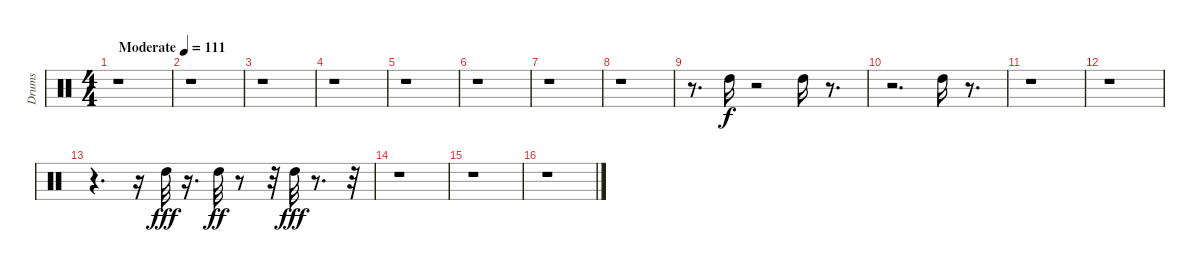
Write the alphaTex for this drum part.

\track ("Drums" "Drums") {instrument percussion}
\staff {score}
\articulation defaults
\ts (4 4)
\tempo (111 "Moderate")
\clef neutral
\ks c
r.1{dy f} |
r.1 |
r.1 |
r.1 |
r.1 |
r.1 |
r.1 |
r.1 |
r.8{d} "High Tom (hit)".16 r.2 "High Tom (hit)".16 r.8{d} |
r.2{d} "High Tom (hit)".16 r.8{d} |
r.1 |
r.1 |
r.4{d} r.16 "High Tom (hit)".32{dy fff} r.16{d} "High Tom (hit)".32{dy ff} r.8 r.32 "High Tom (hit)".32{dy fff} r.8{d} r.32 |
r.1 |
r.1 |
r.1
